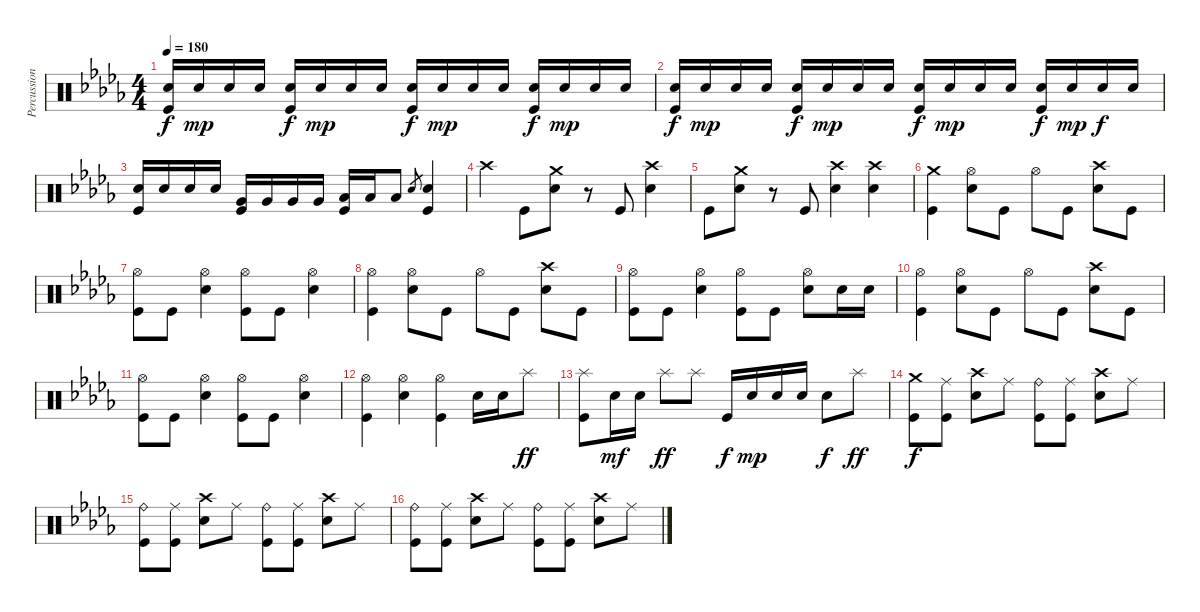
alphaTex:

\track ("Percussion" "Percussion") {instrument percussion}
\staff {score}
\articulation defaults
\ts (4 4)
\tempo 180
\clef neutral
\ks db
("Electric Snare (hit)" "Kick (hit)").16{dy f} "Electric Snare (hit)".16{dy mp} "Electric Snare (hit)".16 "Electric Snare (hit)".16 ("Electric Snare (hit)" "Kick (hit)").16{dy f} "Electric Snare (hit)".16{dy mp} "Electric Snare (hit)".16 "Electric Snare (hit)".16 ("Electric Snare (hit)" "Kick (hit)").16{dy f} "Electric Snare (hit)".16{dy mp} "Electric Snare (hit)".16 "Electric Snare (hit)".16 ("Electric Snare (hit)" "Kick (hit)").16{dy f} "Electric Snare (hit)".16{dy mp} "Electric Snare (hit)".16 "Electric Snare (hit)".16 |
("Electric Snare (hit)" "Kick (hit)").16{dy f} "Electric Snare (hit)".16{dy mp} "Electric Snare (hit)".16 "Electric Snare (hit)".16 ("Electric Snare (hit)" "Kick (hit)").16{dy f} "Electric Snare (hit)".16{dy mp} "Electric Snare (hit)".16 "Electric Snare (hit)".16 ("Electric Snare (hit)" "Kick (hit)").16{dy f} "Electric Snare (hit)".16{dy mp} "Electric Snare (hit)".16 "Electric Snare (hit)".16 ("Electric Snare (hit)" "Kick (hit)").16{dy f} "Electric Snare (hit)".16{dy mp} "Electric Snare (hit)".16{dy f} "Electric Snare (hit)".16 |
("Electric Snare (hit)" "Kick (hit)").16 "Electric Snare (hit)".16 "Electric Snare (hit)".16 "Electric Snare (hit)".16 ("Very Low Tom (hit)" "Kick (hit)").16 "Very Low Tom (hit)".16 "Very Low Tom (hit)".16 "Very Low Tom (hit)".16 ("Low Floor Tom (hit)" "Kick (hit)").16 "Low Floor Tom (hit)".16 "Low Floor Tom (hit)".8 "Electric Snare (hit)".8{gr} ("Electric Snare (hit)" "Kick (hit)").4 |
"Crash high (hit)".4 "Kick (hit)".8 ("Crash medium (hit)" "Electric Snare (hit)").8 r.8 "Kick (hit)".8 ("Crash high (hit)" "Electric Snare (hit)").4 |
"Kick (hit)".8 ("Crash medium (hit)" "Electric Snare (hit)").8 r.8 "Kick (hit)".8 ("Crash high (hit)" "Electric Snare (hit)").4 ("Crash high (hit)" "Electric Snare (hit)").4 |
("Crash medium (hit)" "Kick (hit)").4 ("Hi-Hat (open)" "Electric Snare (hit)").8 "Kick (hit)".8 "Hi-Hat (open)".8 "Kick (hit)".8 ("Crash high (hit)" "Electric Snare (hit)").8 "Kick (hit)".8 |
("Hi-Hat (open)" "Kick (hit)").8 "Kick (hit)".8 ("Hi-Hat (open)" "Electric Snare (hit)").4 ("Hi-Hat (open)" "Kick (hit)").8 "Kick (hit)".8 ("Hi-Hat (open)" "Electric Snare (hit)").4 |
("Hi-Hat (open)" "Kick (hit)").4 ("Hi-Hat (open)" "Electric Snare (hit)").8 "Kick (hit)".8 "Hi-Hat (open)".8 "Kick (hit)".8 ("Crash high (hit)" "Electric Snare (hit)").8 "Kick (hit)".8 |
("Hi-Hat (open)" "Kick (hit)").8 "Kick (hit)".8 ("Hi-Hat (open)" "Electric Snare (hit)").4 ("Hi-Hat (open)" "Kick (hit)").8 "Kick (hit)".8 ("Hi-Hat (open)" "Electric Snare (hit)").8 "Electric Snare (hit)".16 "Electric Snare (hit)".16 |
("Hi-Hat (open)" "Kick (hit)").4 ("Hi-Hat (open)" "Electric Snare (hit)").8 "Kick (hit)".8 "Hi-Hat (open)".8 "Kick (hit)".8 ("Crash high (hit)" "Electric Snare (hit)").8 "Kick (hit)".8 |
("Hi-Hat (open)" "Kick (hit)").8 "Kick (hit)".8 ("Hi-Hat (open)" "Electric Snare (hit)").4 ("Hi-Hat (open)" "Kick (hit)").8 "Kick (hit)".8 ("Hi-Hat (open)" "Electric Snare (hit)").4 |
("Hi-Hat (open)" "Kick (hit)").4 ("Hi-Hat (open)" "Electric Snare (hit)").4 ("Hi-Hat (open)" "Kick (hit)").4 "Electric Snare (hit)".16 "Electric Snare (hit)".16 "Splash (hit)".8{dy ff} |
("Splash (hit)" "Kick (hit)").8 "Electric Snare (hit)".16{dy mf} "Electric Snare (hit)".16 "Splash (hit)".8{dy ff} "Splash (hit)".8 "Kick (hit)".16{dy f} "Electric Snare (hit)".16{dy mp} "Electric Snare (hit)".16 "Electric Snare (hit)".16 "Electric Snare (hit)".8{dy f} "Splash (hit)".8{dy ff} |
("Crash medium (hit)" "Kick (hit)").8{dy f} ("Ride (middle)" "Kick (hit)").8 ("Crash high (hit)" "Electric Snare (hit)").8 "Ride (middle)".8 ("Ride (bell)" "Kick (hit)").8 ("Ride (middle)" "Kick (hit)").8 ("Crash high (hit)" "Electric Snare (hit)").8 "Ride (middle)".8 |
("Ride (bell)" "Kick (hit)").8 ("Ride (middle)" "Kick (hit)").8 ("Crash high (hit)" "Electric Snare (hit)").8 "Ride (middle)".8 ("Ride (bell)" "Kick (hit)").8 ("Ride (middle)" "Kick (hit)").8 ("Crash high (hit)" "Electric Snare (hit)").8 "Ride (middle)".8 |
("Ride (bell)" "Kick (hit)").8 ("Ride (middle)" "Kick (hit)").8 ("Crash high (hit)" "Electric Snare (hit)").8 "Ride (middle)".8 ("Ride (bell)" "Kick (hit)").8 ("Ride (middle)" "Kick (hit)").8 ("Crash high (hit)" "Electric Snare (hit)").8 "Ride (middle)".8
